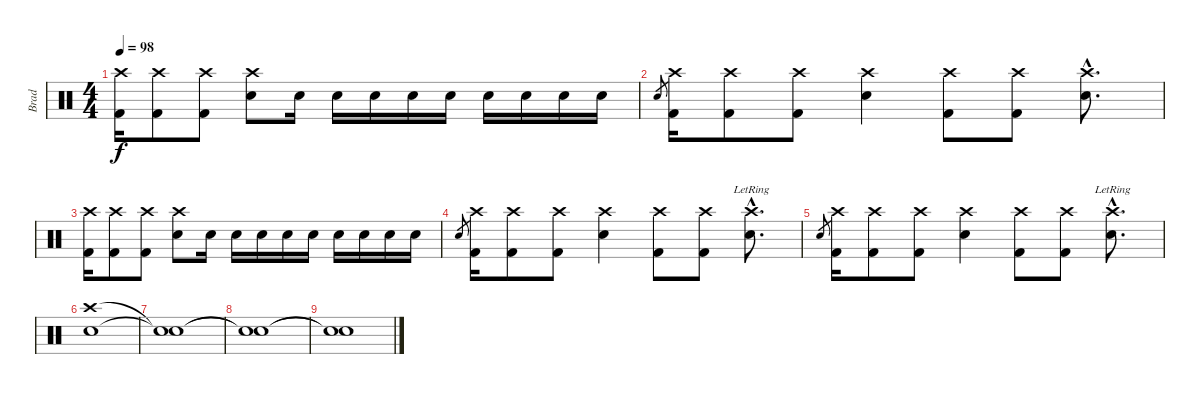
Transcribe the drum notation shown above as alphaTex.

\track ("Brad" "Brad") {instrument percussion}
\staff {score}
\articulation defaults
\ts (4 4)
\tempo 98
\clef neutral
\ks c
("Crash high (hit)" "Kick (hit) 2").16{dy f} ("Crash high (hit)" "Kick (hit) 2").8 ("Crash high (hit)" "Kick (hit) 2").8 ("Crash high (hit)" "Snare (hit) 2").8 "Snare (hit) 2".16 "Snare (hit) 2".16 "Snare (hit) 2".16 "Snare (hit) 2".16 "Snare (hit) 2".16 "Snare (hit) 2".16 "Snare (hit) 2".16 "Snare (hit) 2".16 "Snare (hit) 2".16 |
"Snare (hit) 2".8{gr} ("Crash high (hit)" "Kick (hit) 2").16 ("Crash high (hit)" "Kick (hit) 2").8 ("Crash high (hit)" "Kick (hit) 2").8 ("Crash high (hit)" "Snare (hit) 2").4 ("Crash high (hit)" "Kick (hit) 2").8 ("Crash high (hit)" "Kick (hit) 2").8 ("Crash high (hit)"{hac} "Snare (hit) 2"{hac}).8{d} |
("Crash high (hit)" "Kick (hit) 2").16 ("Crash high (hit)" "Kick (hit) 2").8 ("Crash high (hit)" "Kick (hit) 2").8 ("Crash high (hit)" "Snare (hit) 2").8 "Snare (hit) 2".16 "Snare (hit) 2".16 "Snare (hit) 2".16 "Snare (hit) 2".16 "Snare (hit) 2".16 "Snare (hit) 2".16 "Snare (hit) 2".16 "Snare (hit) 2".16 "Snare (hit) 2".16 |
"Snare (hit) 2".8{gr} ("Crash high (hit)" "Kick (hit) 2").16 ("Crash high (hit)" "Kick (hit) 2").8 ("Crash high (hit)" "Kick (hit) 2").8 ("Crash high (hit)" "Snare (hit) 2").4 ("Crash high (hit)" "Kick (hit) 2").8 ("Crash high (hit)" "Kick (hit) 2").8 ("Crash high (hit)"{hac lr} "Snare (hit) 2"{hac}).8{d} |
"Snare (hit) 2".8{gr} ("Crash high (hit)" "Kick (hit) 2").16 ("Crash high (hit)" "Kick (hit) 2").8 ("Crash high (hit)" "Kick (hit) 2").8 ("Crash high (hit)" "Snare (hit) 2").4 ("Crash high (hit)" "Kick (hit) 2").8 ("Crash high (hit)" "Kick (hit) 2").8 ("Crash high (hit)"{hac lr} "Snare (hit) 2"{hac}).8{d} |
("Crash high (hit)" "Snare (hit) 2").1{volume 0} |
("Snare (hit)"{t} "Snare (hit)"{t}).1 |
("Snare (hit)"{t} "Snare (hit)"{t}).1 |
("Snare (hit)"{t} "Snare (hit)"{t}).1
